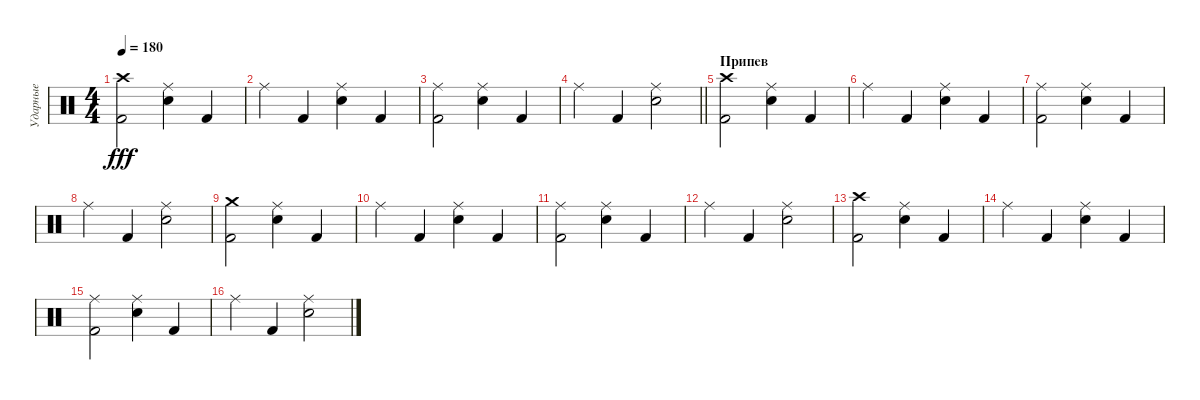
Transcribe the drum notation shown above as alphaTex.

\track ("Ударные" "Ударные") {instrument percussion}
\staff {score}
\articulation defaults
\ts (4 4)
\tempo 180
\clef neutral
\ks c
("Crash high (hit)" "Kick (hit) 2").2{dy fff} ("Ride (middle)" "Snare (hit) 2").4 "Kick (hit) 2".4 |
"Ride (middle)".4 "Kick (hit) 2".4 ("Ride (middle)" "Snare (hit) 2").4 "Kick (hit) 2".4 |
("Ride (middle)" "Kick (hit) 2").2 ("Ride (middle)" "Snare (hit) 2").4 "Kick (hit) 2".4 |
\barLineRight lightlight "Ride (middle)".4 "Kick (hit) 2".4
("Ride (middle)" "Snare (hit) 2").2 |
\section ("" "Припев")
("Crash high (hit)" "Kick (hit) 2").2 ("Ride (middle)" "Snare (hit) 2").4 "Kick (hit) 2".4 |
"Ride (middle)".4 "Kick (hit) 2".4 ("Ride (middle)" "Snare (hit) 2").4 "Kick (hit) 2".4 |
("Ride (middle)" "Kick (hit) 2").2 ("Ride (middle)" "Snare (hit) 2").4 "Kick (hit) 2".4 |
"Ride (middle)".4 "Kick (hit) 2".4 ("Ride (middle)" "Snare (hit) 2").2 |
("Crash medium (hit)" "Kick (hit) 2").2 ("Ride (middle)" "Snare (hit) 2").4 "Kick (hit) 2".4 |
"Ride (middle)".4 "Kick (hit) 2".4 ("Ride (middle)" "Snare (hit) 2").4 "Kick (hit) 2".4 |
("Ride (middle)" "Kick (hit) 2").2 ("Ride (middle)" "Snare (hit) 2").4 "Kick (hit) 2".4 |
"Ride (middle)".4 "Kick (hit) 2".4 ("Ride (middle)" "Snare (hit) 2").2 |
("Crash high (hit)" "Kick (hit) 2").2 ("Ride (middle)" "Snare (hit) 2").4 "Kick (hit) 2".4 |
"Ride (middle)".4 "Kick (hit) 2".4 ("Ride (middle)" "Snare (hit) 2").4 "Kick (hit) 2".4 |
("Ride (middle)" "Kick (hit) 2").2 ("Ride (middle)" "Snare (hit) 2").4 "Kick (hit) 2".4 |
"Ride (middle)".4 "Kick (hit) 2".4 ("Ride (middle)" "Snare (hit) 2").2
